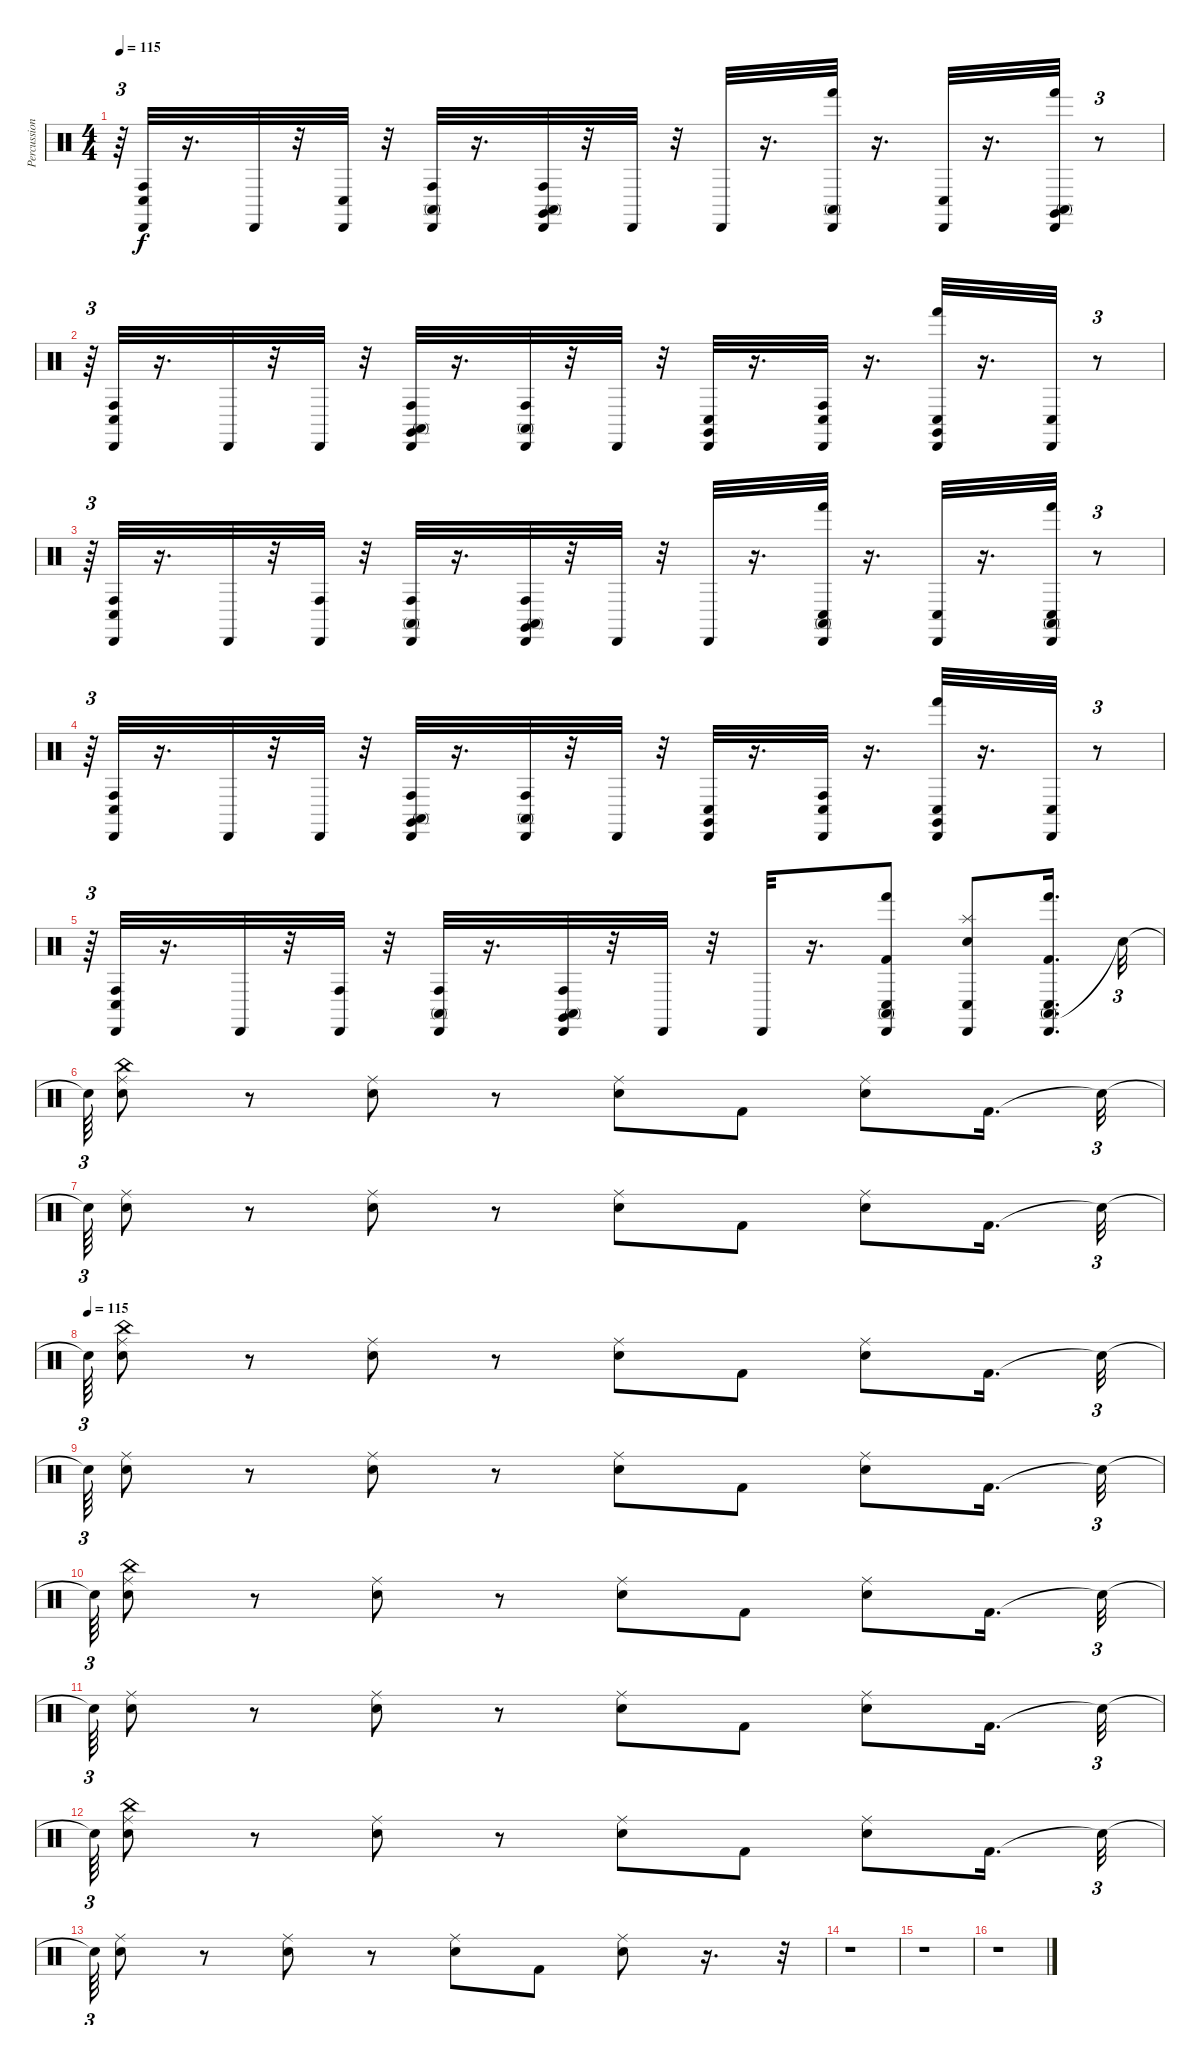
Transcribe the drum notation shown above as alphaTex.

\track ("Percussion" "Percussion") {instrument percussion}
\staff {score}
\articulation defaults
\ts (4 4)
\tempo 115
\clef neutral
\ks c
r.64{tu (3 2) dy f} ("Conga high (hit)" "Cabasa (hit)" "Conga low (hit)").32 r.16{d} "Cabasa (hit)".32 r.32 ("Cabasa (hit)" "Conga low (hit)").32 r.32 ("Conga high (hit)" "Cabasa (hit)" "Conga high (mute)").32 r.16{d} ("Conga high (mute)" "Cabasa (hit)" "Conga high (hit)" "Claves (hit)").32 r.32 "Cabasa (hit)".32 r.32 "Cabasa (hit)".32 r.16{d} ("Hand (hit)" "Conga high (mute)" "Cabasa (hit)").32 r.16{d} ("Conga low (hit)" "Cabasa (hit)").32 r.16{d} ("Claves (hit)" "Conga high (mute)" "Cabasa (hit)" "Hand (hit)").32 r.8{tu (3 2)} |
r.64{tu (3 2)} ("Cabasa (hit)" "Conga high (hit)" "Conga low (hit)").32 r.16{d} "Cabasa (hit)".32 r.32 "Cabasa (hit)".32 r.32 ("Conga high (mute)" "Cabasa (hit)" "Conga high (hit)" "Claves (hit)").32 r.16{d} ("Conga high (hit)" "Cabasa (hit)" "Conga high (mute)").32 r.32 "Cabasa (hit)".32 r.32 ("Claves (hit)" "Conga low (hit)" "Cabasa (hit)").32 r.16{d} ("Cabasa (hit)" "Conga low (hit)" "Conga high (hit)").32 r.16{d} ("Claves (hit)" "Cabasa (hit)" "Hand (hit)" "Conga low (hit)").32 r.16{d} ("Cabasa (hit)" "Conga low (hit)").32 r.8{tu (3 2)} |
r.64{tu (3 2)} ("Conga low (hit)" "Conga high (hit)" "Cabasa (hit)").32 r.16{d} "Cabasa (hit)".32 r.32 ("Conga high (hit)" "Cabasa (hit)").32 r.32 ("Conga high (hit)" "Conga high (mute)" "Cabasa (hit)").32 r.16{d} ("Claves (hit)" "Conga high (hit)" "Conga high (mute)" "Cabasa (hit)").32 r.32 "Cabasa (hit)".32 r.32 "Cabasa (hit)".32 r.16{d} ("Conga low (hit)" "Conga high (mute)" "Cabasa (hit)" "Hand (hit)").32 r.16{d} ("Cabasa (hit)" "Conga low (hit)").32 r.16{d} ("Conga high (mute)" "Hand (hit)" "Conga low (hit)" "Cabasa (hit)").32 r.8{tu (3 2)} |
r.64{tu (3 2)} ("Conga low (hit)" "Cabasa (hit)" "Conga high (hit)").32 r.16{d} "Cabasa (hit)".32 r.32 "Cabasa (hit)".32 r.32 ("Cabasa (hit)" "Claves (hit)" "Conga high (mute)" "Conga high (hit)").32 r.16{d} ("Conga high (hit)" "Conga high (mute)" "Cabasa (hit)").32 r.32 "Cabasa (hit)".32 r.32 ("Cabasa (hit)" "Claves (hit)" "Conga low (hit)").32 r.16{d} ("Conga low (hit)" "Cabasa (hit)" "Conga high (hit)").32 r.16{d} ("Claves (hit)" "Hand (hit)" "Conga low (hit)" "Cabasa (hit)").32 r.16{d} ("Conga low (hit)" "Cabasa (hit)").32 r.8{tu (3 2)} |
r.64{tu (3 2)} ("Conga high (hit)" "Cabasa (hit)" "Conga low (hit)").32 r.16{d} "Cabasa (hit)".32 r.32 ("Conga high (hit)" "Cabasa (hit)").32 r.32 ("Conga high (mute)" "Cabasa (hit)" "Conga high (hit)").32 r.16{d} ("Conga high (hit)" "Claves (hit)" "Cabasa (hit)" "Conga high (mute)").32 r.32 "Cabasa (hit)".32 r.32 "Cabasa (hit)".32 r.16{d} ("Kick (hit) 2" "Conga low (hit)" "Hand (hit)" "Cabasa (hit)" "Conga high (mute)").8 ("Splash (hit)" "Conga low (hit)" "Cabasa (hit)" "Electric Snare (hit)").8 ("Conga high (mute)" "Kick (hit) 2" "Conga low (hit)" "Hand (hit)" "Cabasa (hit)").16{d} "Snare (hit)"{t}.32{tu (3 2)} |
"Snare (hit)"{t}.64{tu (3 2)} ("Ride (middle)" "Electric Snare (hit)" "China (hit)").8 r.8 ("Ride (middle)" "Electric Snare (hit)").8 r.8 ("Ride (middle)" "Electric Snare (hit)").8 "Kick (hit) 2".8 ("Ride (middle)" "Electric Snare (hit)").8 "Kick (hit) 2".16{d} "Snare (hit)"{t}.32{tu (3 2)} |
"Snare (hit)"{t}.64{tu (3 2)} ("Ride (middle)" "Electric Snare (hit)").8 r.8 ("Ride (middle)" "Electric Snare (hit)").8 r.8 ("Ride (middle)" "Electric Snare (hit)").8 "Kick (hit) 2".8 ("Electric Snare (hit)" "Ride (middle)").8 "Kick (hit) 2".16{d} "Snare (hit)"{t}.32{tu (3 2)} |
\tempo (115)
"Snare (hit)"{t}.64{tu (3 2)} ("Ride (middle)" "China (hit)" "Electric Snare (hit)").8 r.8 ("Electric Snare (hit)" "Ride (middle)").8 r.8 ("Ride (middle)" "Electric Snare (hit)").8 "Kick (hit) 2".8 ("Electric Snare (hit)" "Ride (middle)").8 "Kick (hit) 2".16{d} "Snare (hit)"{t}.32{tu (3 2)} |
"Snare (hit)"{t}.64{tu (3 2)} ("Ride (middle)" "Electric Snare (hit)").8 r.8 ("Electric Snare (hit)" "Ride (middle)").8 r.8 ("Ride (middle)" "Electric Snare (hit)").8 "Kick (hit) 2".8 ("Electric Snare (hit)" "Ride (middle)").8 "Kick (hit) 2".16{d} "Snare (hit)"{t}.32{tu (3 2)} |
"Snare (hit)"{t}.64{tu (3 2)} ("China (hit)" "Ride (middle)" "Electric Snare (hit)").8 r.8 ("Electric Snare (hit)" "Ride (middle)").8 r.8 ("Ride (middle)" "Electric Snare (hit)").8 "Kick (hit) 2".8 ("Electric Snare (hit)" "Ride (middle)").8 "Kick (hit) 2".16{d} "Snare (hit)"{t}.32{tu (3 2)} |
"Snare (hit)"{t}.64{tu (3 2)} ("Ride (middle)" "Electric Snare (hit)").8 r.8 ("Electric Snare (hit)" "Ride (middle)").8 r.8 ("Ride (middle)" "Electric Snare (hit)").8 "Kick (hit) 2".8 ("Electric Snare (hit)" "Ride (middle)").8 "Kick (hit) 2".16{d} "Snare (hit)"{t}.32{tu (3 2)} |
"Snare (hit)"{t}.64{tu (3 2)} ("China (hit)" "Ride (middle)" "Electric Snare (hit)").8 r.8 ("Electric Snare (hit)" "Ride (middle)").8 r.8 ("Ride (middle)" "Electric Snare (hit)").8 "Kick (hit) 2".8 ("Electric Snare (hit)" "Ride (middle)").8 "Kick (hit) 2".16{d} "Snare (hit)"{t}.32{tu (3 2)} |
"Snare (hit)"{t}.64{tu (3 2)} ("Ride (middle)" "Electric Snare (hit)").8 r.8 ("Electric Snare (hit)" "Ride (middle)").8 r.8 ("Ride (middle)" "Electric Snare (hit)").8 "Kick (hit) 2".8 ("Electric Snare (hit)" "Ride (middle)").8 r.16{d} r.32{tu (3 2)} |
r.1 |
r.1 |
r.1
